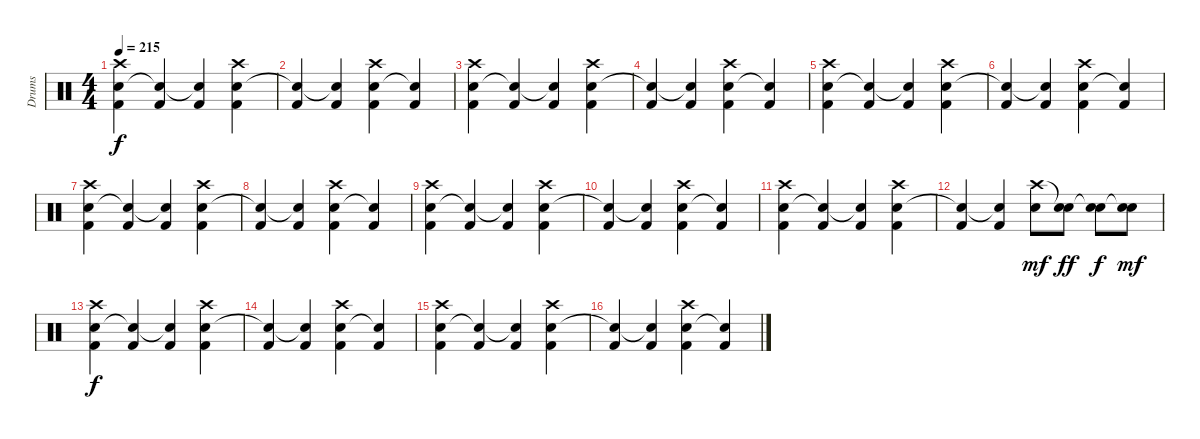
\track ("Drums" "Drums") {instrument percussion}
\staff {score}
\articulation defaults
\ts (4 4)
\tempo 215
\clef neutral
\ks c
("Kick (hit) 2" "Snare (hit) 2" "Crash high (hit)").4{dy f} ("Kick (hit) 2" "Snare (hit)"{t}).4 ("Kick (hit) 2" "Snare (hit)"{t}).4 ("Kick (hit) 2" "Snare (hit) 2" "Crash high (hit)").4 |
("Kick (hit) 2" "Snare (hit)"{t}).4 ("Kick (hit) 2" "Snare (hit)"{t}).4 ("Kick (hit) 2" "Snare (hit) 2" "Crash high (hit)").4 ("Kick (hit) 2" "Snare (hit)"{t}).4 |
("Kick (hit) 2" "Snare (hit) 2" "Crash high (hit)").4 ("Kick (hit) 2" "Snare (hit)"{t}).4 ("Kick (hit) 2" "Snare (hit)"{t}).4 ("Kick (hit) 2" "Snare (hit) 2" "Crash high (hit)").4 |
("Kick (hit) 2" "Snare (hit)"{t}).4 ("Kick (hit) 2" "Snare (hit)"{t}).4 ("Kick (hit) 2" "Snare (hit) 2" "Crash high (hit)").4 ("Kick (hit) 2" "Snare (hit)"{t}).4 |
("Kick (hit) 2" "Snare (hit) 2" "Crash high (hit)").4 ("Kick (hit) 2" "Snare (hit)"{t}).4 ("Kick (hit) 2" "Snare (hit)"{t}).4 ("Kick (hit) 2" "Snare (hit) 2" "Crash high (hit)").4 |
("Kick (hit) 2" "Snare (hit)"{t}).4 ("Kick (hit) 2" "Snare (hit)"{t}).4 ("Kick (hit) 2" "Snare (hit) 2" "Crash high (hit)").4 ("Kick (hit) 2" "Snare (hit)"{t}).4 |
("Kick (hit) 2" "Snare (hit) 2" "Crash high (hit)").4 ("Kick (hit) 2" "Snare (hit)"{t}).4 ("Kick (hit) 2" "Snare (hit)"{t}).4 ("Kick (hit) 2" "Snare (hit) 2" "Crash high (hit)").4 |
("Kick (hit) 2" "Snare (hit)"{t}).4 ("Kick (hit) 2" "Snare (hit)"{t}).4 ("Kick (hit) 2" "Snare (hit) 2" "Crash high (hit)").4 ("Kick (hit) 2" "Snare (hit)"{t}).4 |
("Kick (hit) 2" "Snare (hit) 2" "Crash high (hit)").4 ("Kick (hit) 2" "Snare (hit)"{t}).4 ("Kick (hit) 2" "Snare (hit)"{t}).4 ("Kick (hit) 2" "Snare (hit) 2" "Crash high (hit)").4 |
("Kick (hit) 2" "Snare (hit)"{t}).4 ("Kick (hit) 2" "Snare (hit)"{t}).4 ("Kick (hit) 2" "Snare (hit) 2" "Crash high (hit)").4 ("Kick (hit) 2" "Snare (hit)"{t}).4 |
("Kick (hit) 2" "Snare (hit) 2" "Crash high (hit)").4 ("Kick (hit) 2" "Snare (hit)"{t}).4 ("Kick (hit) 2" "Snare (hit)"{t}).4 ("Kick (hit) 2" "Snare (hit) 2" "Crash high (hit)").4 |
("Kick (hit) 2" "Snare (hit)"{t}).4 ("Kick (hit) 2" "Snare (hit)"{t}).4 ("Snare (hit) 2" "Crash high (hit)").8{dy mf} ("Snare (hit) 2" "Snare (hit)"{t}).8{dy ff} ("Snare (hit) 2" "Snare (hit)"{t}).8{dy f} ("Snare (hit) 2" "Snare (hit)"{t}).8{dy mf} |
("Kick (hit) 2" "Snare (hit) 2" "Crash high (hit)").4{dy f} ("Kick (hit) 2" "Snare (hit)"{t}).4 ("Kick (hit) 2" "Snare (hit)"{t}).4 ("Kick (hit) 2" "Snare (hit) 2" "Crash high (hit)").4 |
("Kick (hit) 2" "Snare (hit)"{t}).4 ("Kick (hit) 2" "Snare (hit)"{t}).4 ("Kick (hit) 2" "Snare (hit) 2" "Crash high (hit)").4 ("Kick (hit) 2" "Snare (hit)"{t}).4 |
("Kick (hit) 2" "Snare (hit) 2" "Crash high (hit)").4 ("Kick (hit) 2" "Snare (hit)"{t}).4 ("Kick (hit) 2" "Snare (hit)"{t}).4 ("Kick (hit) 2" "Snare (hit) 2" "Crash high (hit)").4 |
("Kick (hit) 2" "Snare (hit)"{t}).4 ("Kick (hit) 2" "Snare (hit)"{t}).4 ("Kick (hit) 2" "Snare (hit) 2" "Crash high (hit)").4 ("Kick (hit) 2" "Snare (hit)"{t}).4
